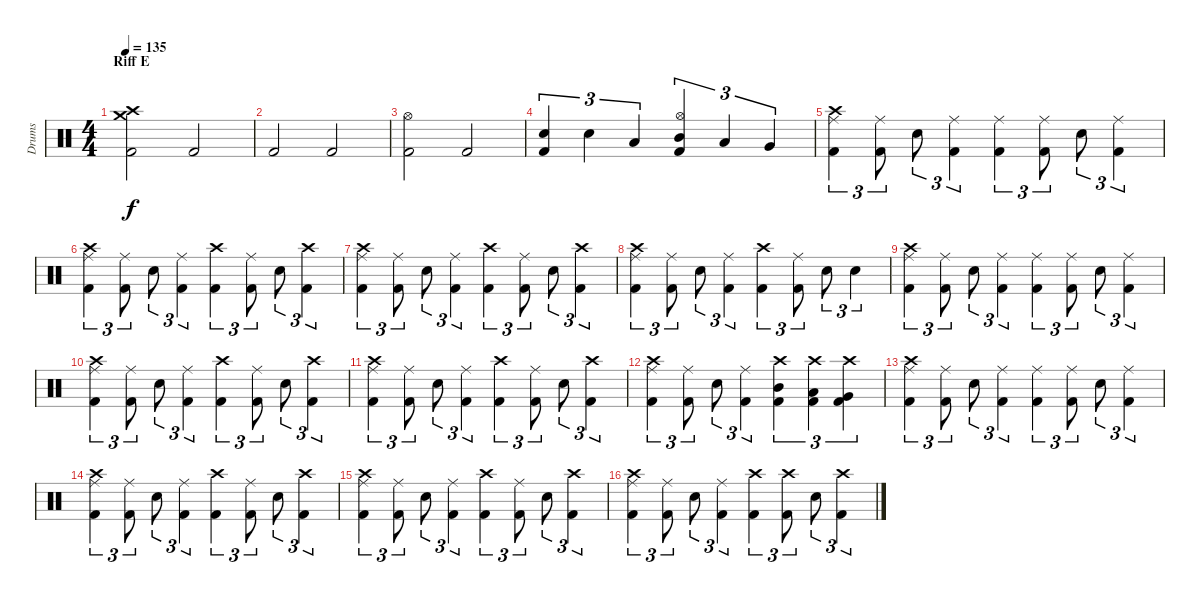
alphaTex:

\track ("Drums" "Drums") {instrument percussion}
\staff {score}
\articulation defaults
\ts (4 4)
\section ("" "Riff E")
\tempo 135
\clef neutral
\ks c
("Crash high (hit)" "Crash medium (hit)" "Kick (hit) 2").2{dy f} "Kick (hit) 2".2 |
"Kick (hit) 2".2 "Kick (hit) 2".2 |
("Hi-Hat (open)" "Kick (hit) 2").2 "Kick (hit) 2".2 |
("Electric Snare (hit)" "Kick (hit) 2").4{tu (3 2)} "Electric Snare (hit)".4{tu (3 2)} "Low Tom (hit)".4{tu (3 2)} ("Hi-Hat (open)" "Mid Tom (hit)" "Kick (hit) 2").4{tu (3 2)} "Low Tom (hit)".4{tu (3 2)} "Very Low Tom (hit)".4{tu (3 2)} |
("Crash high (hit)" "Ride (middle)" "Kick (hit) 2").4{tu (3 2)} ("Ride (middle)" "Kick (hit) 2").8{tu (3 2)} "Electric Snare (hit)".8{tu (3 2)} ("Ride (middle)" "Kick (hit) 2").4{tu (3 2)} ("Ride (middle)" "Kick (hit) 2").4{tu (3 2)} ("Ride (middle)" "Kick (hit) 2").8{tu (3 2)} "Electric Snare (hit)".8{tu (3 2)} ("Ride (middle)" "Kick (hit) 2").4{tu (3 2)} |
("Crash high (hit)" "Ride (middle)" "Kick (hit) 2").4{tu (3 2)} ("Ride (middle)" "Kick (hit) 2").8{tu (3 2)} "Electric Snare (hit)".8{tu (3 2)} ("Ride (middle)" "Kick (hit) 2").4{tu (3 2)} ("Crash high (hit)" "Kick (hit) 2").4{tu (3 2)} ("Ride (middle)" "Kick (hit) 2").8{tu (3 2)} "Electric Snare (hit)".8{tu (3 2)} ("Crash high (hit)" "Kick (hit) 2").4{tu (3 2)} |
("Crash high (hit)" "Ride (middle)" "Kick (hit) 2").4{tu (3 2)} ("Ride (middle)" "Kick (hit) 2").8{tu (3 2)} "Electric Snare (hit)".8{tu (3 2)} ("Ride (middle)" "Kick (hit) 2").4{tu (3 2)} ("Crash high (hit)" "Kick (hit) 2").4{tu (3 2)} ("Ride (middle)" "Kick (hit) 2").8{tu (3 2)} "Electric Snare (hit)".8{tu (3 2)} ("Crash high (hit)" "Kick (hit) 2").4{tu (3 2)} |
("Crash high (hit)" "Ride (middle)" "Kick (hit) 2").4{tu (3 2)} ("Ride (middle)" "Kick (hit) 2").8{tu (3 2)} "Electric Snare (hit)".8{tu (3 2)} ("Ride (middle)" "Kick (hit) 2").4{tu (3 2)} ("Crash high (hit)" "Kick (hit) 2").4{tu (3 2)} ("Ride (middle)" "Kick (hit) 2").8{tu (3 2)} "Electric Snare (hit)".8{tu (3 2)} "Electric Snare (hit)".4{tu (3 2)} |
("Crash high (hit)" "Ride (middle)" "Kick (hit) 2").4{tu (3 2)} ("Ride (middle)" "Kick (hit) 2").8{tu (3 2)} "Electric Snare (hit)".8{tu (3 2)} ("Ride (middle)" "Kick (hit) 2").4{tu (3 2)} ("Ride (middle)" "Kick (hit) 2").4{tu (3 2)} ("Ride (middle)" "Kick (hit) 2").8{tu (3 2)} "Electric Snare (hit)".8{tu (3 2)} ("Ride (middle)" "Kick (hit) 2").4{tu (3 2)} |
("Crash high (hit)" "Ride (middle)" "Kick (hit) 2").4{tu (3 2)} ("Ride (middle)" "Kick (hit) 2").8{tu (3 2)} "Electric Snare (hit)".8{tu (3 2)} ("Ride (middle)" "Kick (hit) 2").4{tu (3 2)} ("Crash high (hit)" "Kick (hit) 2").4{tu (3 2)} ("Ride (middle)" "Kick (hit) 2").8{tu (3 2)} "Electric Snare (hit)".8{tu (3 2)} ("Crash high (hit)" "Kick (hit) 2").4{tu (3 2)} |
("Crash high (hit)" "Ride (middle)" "Kick (hit) 2").4{tu (3 2)} ("Ride (middle)" "Kick (hit) 2").8{tu (3 2)} "Electric Snare (hit)".8{tu (3 2)} ("Ride (middle)" "Kick (hit) 2").4{tu (3 2)} ("Crash high (hit)" "Kick (hit) 2").4{tu (3 2)} ("Ride (middle)" "Kick (hit) 2").8{tu (3 2)} "Electric Snare (hit)".8{tu (3 2)} ("Crash high (hit)" "Kick (hit) 2").4{tu (3 2)} |
("Crash high (hit)" "Ride (middle)" "Kick (hit) 2").4{tu (3 2)} ("Ride (middle)" "Kick (hit) 2").8{tu (3 2)} "Electric Snare (hit)".8{tu (3 2)} ("Ride (middle)" "Kick (hit) 2").4{tu (3 2)} ("Crash high (hit)" "Mid Tom (hit)" "Kick (hit) 2").4{tu (3 2)} ("Crash high (hit)" "Low Tom (hit)" "Kick (hit) 2").4{tu (3 2)} ("Crash high (hit)" "Very Low Tom (hit)" "Kick (hit) 2").4{tu (3 2)} |
("Crash high (hit)" "Ride (middle)" "Kick (hit) 2").4{tu (3 2)} ("Ride (middle)" "Kick (hit) 2").8{tu (3 2)} "Electric Snare (hit)".8{tu (3 2)} ("Ride (middle)" "Kick (hit) 2").4{tu (3 2)} ("Ride (middle)" "Kick (hit) 2").4{tu (3 2)} ("Ride (middle)" "Kick (hit) 2").8{tu (3 2)} "Electric Snare (hit)".8{tu (3 2)} ("Ride (middle)" "Kick (hit) 2").4{tu (3 2)} |
("Crash high (hit)" "Ride (middle)" "Kick (hit) 2").4{tu (3 2)} ("Ride (middle)" "Kick (hit) 2").8{tu (3 2)} "Electric Snare (hit)".8{tu (3 2)} ("Ride (middle)" "Kick (hit) 2").4{tu (3 2)} ("Crash high (hit)" "Kick (hit) 2").4{tu (3 2)} ("Ride (middle)" "Kick (hit) 2").8{tu (3 2)} "Electric Snare (hit)".8{tu (3 2)} ("Crash high (hit)" "Kick (hit) 2").4{tu (3 2)} |
("Crash high (hit)" "Ride (middle)" "Kick (hit) 2").4{tu (3 2)} ("Ride (middle)" "Kick (hit) 2").8{tu (3 2)} "Electric Snare (hit)".8{tu (3 2)} ("Ride (middle)" "Kick (hit) 2").4{tu (3 2)} ("Crash high (hit)" "Kick (hit) 2").4{tu (3 2)} ("Ride (middle)" "Kick (hit) 2").8{tu (3 2)} "Electric Snare (hit)".8{tu (3 2)} ("Crash high (hit)" "Kick (hit) 2").4{tu (3 2)} |
("Crash high (hit)" "Ride (middle)" "Kick (hit) 2").4{tu (3 2)} ("Ride (middle)" "Kick (hit) 2").8{tu (3 2)} "Electric Snare (hit)".8{tu (3 2)} ("Ride (middle)" "Kick (hit) 2").4{tu (3 2)} ("Crash high (hit)" "Kick (hit) 2").4{tu (3 2)} ("Crash high (hit)" "Kick (hit) 2").8{tu (3 2)} "Electric Snare (hit)".8{tu (3 2)} ("Crash high (hit)" "Kick (hit) 2").4{tu (3 2)}
